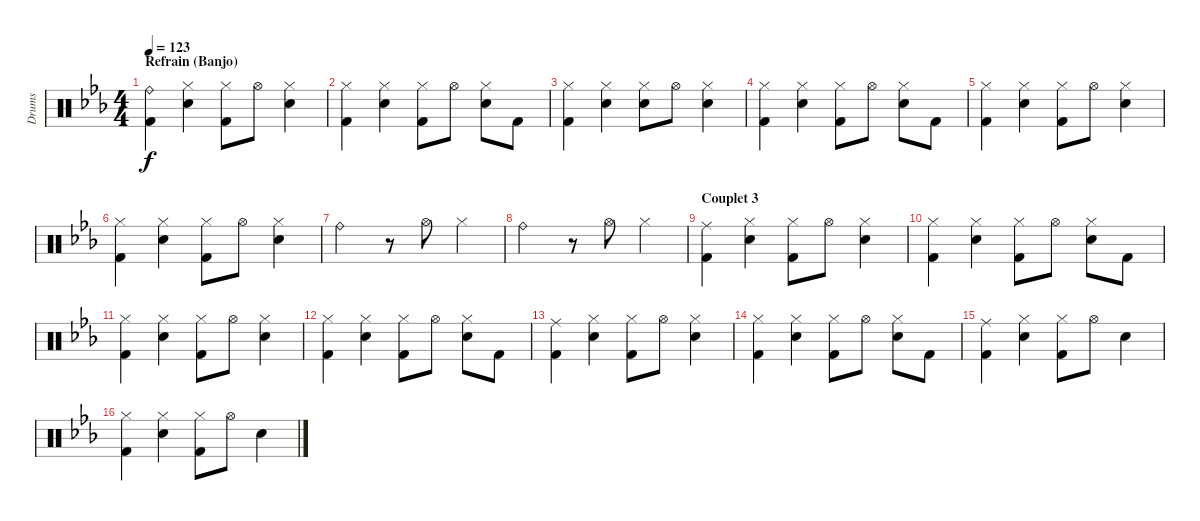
\track ("Drums" "Drums") {instrument percussion}
\staff {score}
\articulation defaults
\ts (4 4)
\section ("" "Refrain (Banjo)")
\tempo 123
\clef neutral
\ks cminor
("Ride (bell)" "Kick (hit) 2").4{dy f} ("Hi-Hat (closed)" "Electric Snare (hit)").4 ("Hi-Hat (closed)" "Kick (hit) 2").8 "Hi-Hat (open)".8 ("Hi-Hat (closed)" "Electric Snare (hit)").4 |
("Hi-Hat (closed)" "Kick (hit) 2").4 ("Hi-Hat (closed)" "Electric Snare (hit)").4 ("Hi-Hat (closed)" "Kick (hit) 2").8 "Hi-Hat (open)".8 ("Hi-Hat (closed)" "Electric Snare (hit)").8 "Kick (hit) 2".8 |
("Hi-Hat (closed)" "Kick (hit) 2").4 ("Hi-Hat (closed)" "Electric Snare (hit)").4 ("Hi-Hat (closed)" "Electric Snare (hit)").8 "Hi-Hat (open)".8 ("Hi-Hat (closed)" "Electric Snare (hit)").4 |
("Hi-Hat (closed)" "Kick (hit) 2").4 ("Hi-Hat (closed)" "Electric Snare (hit)").4 ("Hi-Hat (closed)" "Kick (hit) 2").8 "Hi-Hat (open)".8 ("Hi-Hat (closed)" "Electric Snare (hit)").8 "Kick (hit) 2".8 |
("Hi-Hat (closed)" "Kick (hit) 2").4 ("Hi-Hat (closed)" "Electric Snare (hit)").4 ("Hi-Hat (closed)" "Kick (hit) 2").8 "Hi-Hat (open)".8 ("Hi-Hat (closed)" "Electric Snare (hit)").4 |
("Hi-Hat (closed)" "Kick (hit) 2").4 ("Hi-Hat (closed)" "Electric Snare (hit)").4 ("Hi-Hat (closed)" "Kick (hit) 2").8 "Hi-Hat (open)".8 ("Hi-Hat (closed)" "Electric Snare (hit)").4 |
"Ride (bell)".2 r.8 "Hi-Hat (open)".8 "Hi-Hat (closed)".4 |
"Ride (bell)".2 r.8 "Hi-Hat (open)".8 "Hi-Hat (closed)".4 |
\section ("" "Couplet 3")
("Ride (middle)" "Kick (hit) 2").4 ("Hi-Hat (closed)" "Electric Snare (hit)").4 ("Hi-Hat (closed)" "Kick (hit) 2").8 "Hi-Hat (open)".8 ("Hi-Hat (closed)" "Electric Snare (hit)").4 |
("Hi-Hat (closed)" "Kick (hit) 2").4 ("Hi-Hat (closed)" "Electric Snare (hit)").4 ("Hi-Hat (closed)" "Kick (hit) 2").8 "Hi-Hat (open)".8 ("Hi-Hat (closed)" "Electric Snare (hit)").8 "Kick (hit) 2".8 |
("Hi-Hat (closed)" "Kick (hit) 2").4 ("Hi-Hat (closed)" "Electric Snare (hit)").4 ("Hi-Hat (closed)" "Kick (hit) 2").8 "Hi-Hat (open)".8 ("Hi-Hat (closed)" "Electric Snare (hit)").4 |
("Hi-Hat (closed)" "Kick (hit) 2").4 ("Hi-Hat (closed)" "Electric Snare (hit)").4 ("Hi-Hat (closed)" "Kick (hit) 2").8 "Hi-Hat (open)".8 ("Hi-Hat (closed)" "Electric Snare (hit)").8 "Kick (hit) 2".8 |
("Ride (middle)" "Kick (hit) 2").4 ("Hi-Hat (closed)" "Electric Snare (hit)").4 ("Hi-Hat (closed)" "Kick (hit) 2").8 "Hi-Hat (open)".8 ("Hi-Hat (closed)" "Electric Snare (hit)").4 |
("Hi-Hat (closed)" "Kick (hit) 2").4 ("Hi-Hat (closed)" "Electric Snare (hit)").4 ("Hi-Hat (closed)" "Kick (hit) 2").8 "Hi-Hat (open)".8 ("Hi-Hat (closed)" "Electric Snare (hit)").8 "Kick (hit) 2".8 |
("Ride (middle)" "Kick (hit) 2").4 ("Hi-Hat (closed)" "Electric Snare (hit)").4 ("Hi-Hat (closed)" "Kick (hit) 2").8 "Hi-Hat (open)".8 "Electric Snare (hit)".4 |
("Hi-Hat (closed)" "Kick (hit) 2").4 ("Hi-Hat (closed)" "Electric Snare (hit)").4 ("Hi-Hat (closed)" "Kick (hit) 2").8 "Hi-Hat (open)".8 "Electric Snare (hit)".4
